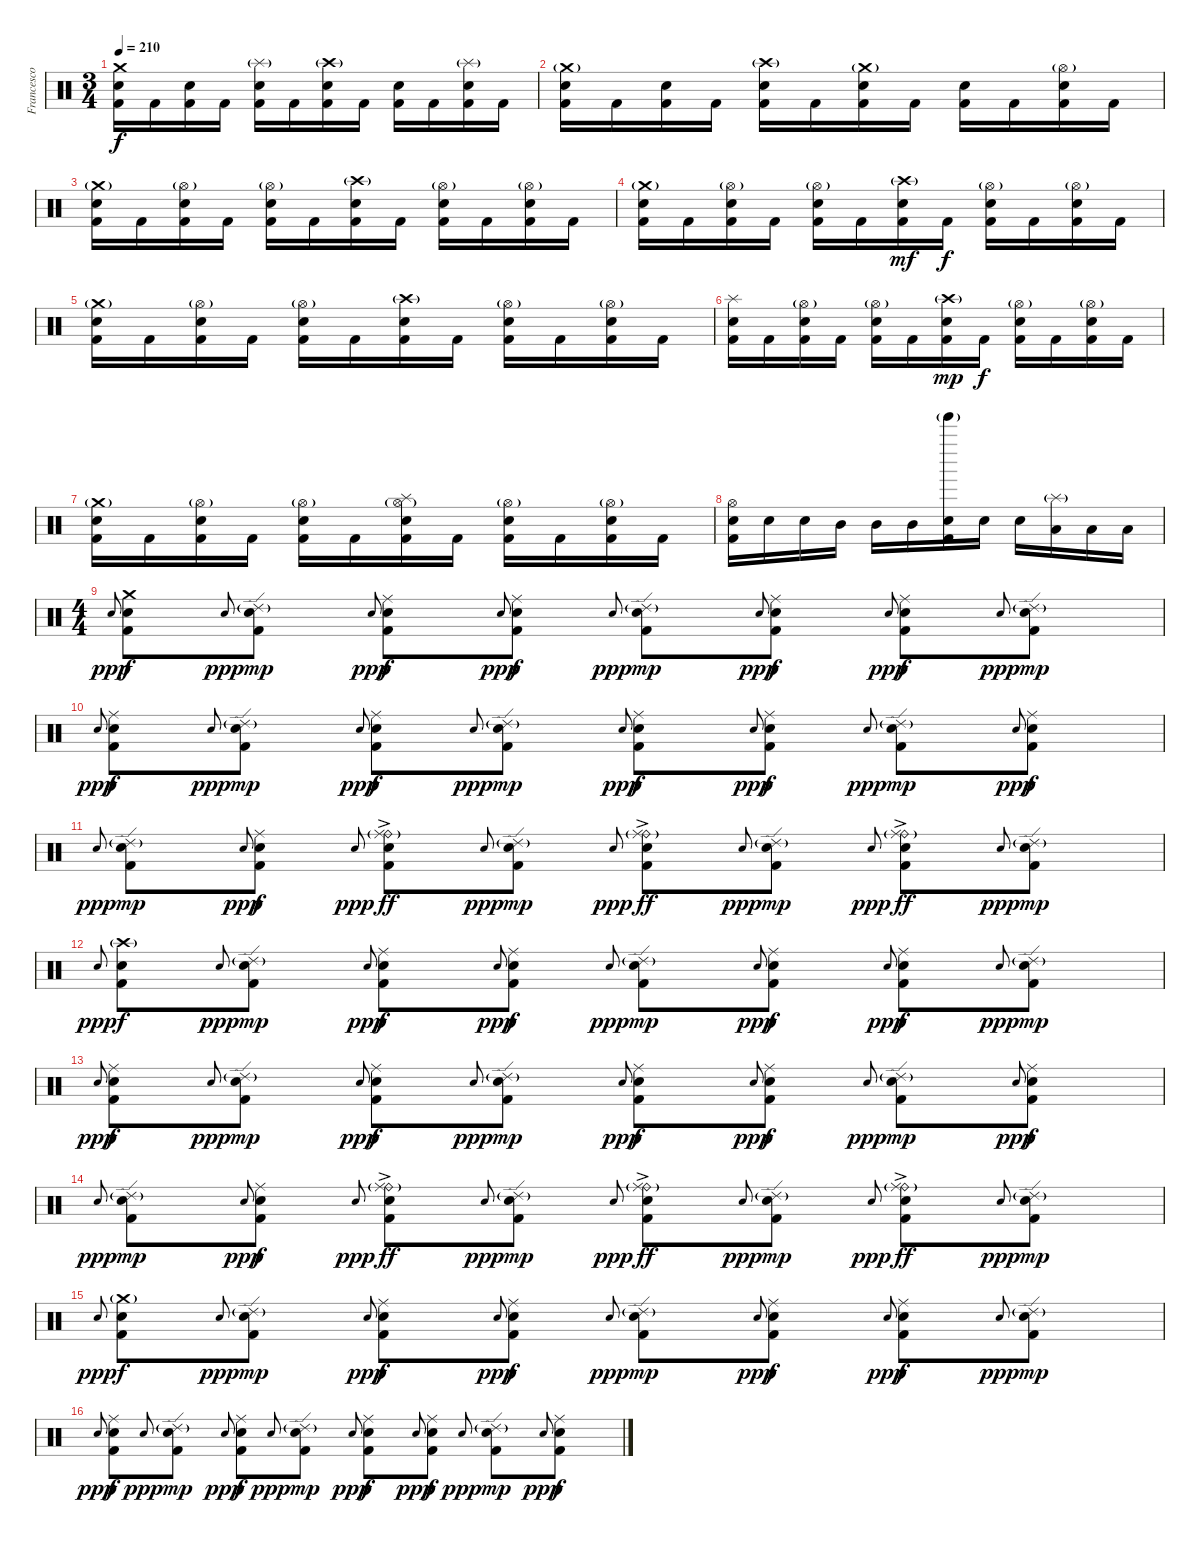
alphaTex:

\track ("Francesco Ferrini" "Francesco ") {instrument percussion}
\staff {score}
\articulation defaults
\ts (3 4)
\tempo 210
\clef neutral
\ks c
("Crash medium (hit)" "Electric Snare (hit)" "Kick (hit) 2").16{dy f} "Kick (hit) 2".16 ("Electric Snare (hit)" "Kick (hit) 2").16 "Kick (hit) 2".16 ("Splash (hit)"{g} "Electric Snare (hit)" "Kick (hit) 2").16 "Kick (hit) 2".16 ("Crash high (hit)"{g} "Electric Snare (hit)" "Kick (hit) 2").16 "Kick (hit) 2".16 ("Electric Snare (hit)" "Kick (hit) 2").16 "Kick (hit) 2".16 ("Splash (hit)"{g} "Electric Snare (hit)" "Kick (hit) 2").16 "Kick (hit) 2".16 |
("Crash medium (hit)"{g} "Electric Snare (hit)" "Kick (hit) 2").16 "Kick (hit) 2".16 ("Electric Snare (hit)" "Kick (hit) 2").16 "Kick (hit) 2".16 ("Crash high (hit)"{g} "Electric Snare (hit)" "Kick (hit) 2").16 "Kick (hit) 2".16 ("Crash medium (hit)"{g} "Electric Snare (hit)" "Kick (hit) 2").16 "Kick (hit) 2".16 ("Electric Snare (hit)" "Kick (hit) 2").16 "Kick (hit) 2".16 ("Hi-Hat (open)"{g} "Electric Snare (hit)" "Kick (hit) 2").16 "Kick (hit) 2".16 |
("Crash medium (hit)"{g} "Electric Snare (hit)" "Kick (hit) 2").16 "Kick (hit) 2".16 ("Hi-Hat (open)"{g} "Electric Snare (hit)" "Kick (hit) 2").16 "Kick (hit) 2".16 ("Hi-Hat (open)"{g} "Electric Snare (hit)" "Kick (hit) 2").16 "Kick (hit) 2".16 ("Crash high (hit)"{g} "Electric Snare (hit)" "Kick (hit) 2").16 "Kick (hit) 2".16 ("Hi-Hat (open)"{g} "Electric Snare (hit)" "Kick (hit) 2").16 "Kick (hit) 2".16 ("Hi-Hat (open)"{g} "Electric Snare (hit)" "Kick (hit) 2").16 "Kick (hit) 2".16 |
("Crash medium (hit)"{g} "Electric Snare (hit)" "Kick (hit) 2").16 "Kick (hit) 2".16 ("Hi-Hat (open)"{g} "Electric Snare (hit)" "Kick (hit) 2").16 "Kick (hit) 2".16 ("Hi-Hat (open)"{g} "Electric Snare (hit)" "Kick (hit) 2").16 "Kick (hit) 2".16 ("Crash high (hit)"{g} "Electric Snare (hit)" "Kick (hit) 2").16{dy mf} "Kick (hit) 2".16{dy f} ("Hi-Hat (open)"{g} "Electric Snare (hit)" "Kick (hit) 2").16 "Kick (hit) 2".16 ("Hi-Hat (open)"{g} "Electric Snare (hit)" "Kick (hit) 2").16 "Kick (hit) 2".16 |
("Crash medium (hit)"{g} "Electric Snare (hit)" "Kick (hit) 2").16 "Kick (hit) 2".16 ("Hi-Hat (open)"{g} "Electric Snare (hit)" "Kick (hit) 2").16 "Kick (hit) 2".16 ("Hi-Hat (open)"{g} "Electric Snare (hit)" "Kick (hit) 2").16 "Kick (hit) 2".16 ("Crash high (hit)"{g} "Electric Snare (hit)" "Kick (hit) 2").16 "Kick (hit) 2".16 ("Hi-Hat (open)"{g} "Electric Snare (hit)" "Kick (hit) 2").16 "Kick (hit) 2".16 ("Hi-Hat (open)"{g} "Electric Snare (hit)" "Kick (hit) 2").16 "Kick (hit) 2".16 |
("Splash (hit)" "Electric Snare (hit)" "Kick (hit) 2").16 "Kick (hit) 2".16 ("Hi-Hat (open)"{g} "Electric Snare (hit)" "Kick (hit) 2").16 "Kick (hit) 2".16 ("Hi-Hat (open)"{g} "Electric Snare (hit)" "Kick (hit) 2").16 "Kick (hit) 2".16 ("Crash high (hit)"{g} "Electric Snare (hit)" "Kick (hit) 2").16{dy mp} "Kick (hit) 2".16{dy f} ("Hi-Hat (open)"{g} "Electric Snare (hit)" "Kick (hit) 2").16 "Kick (hit) 2".16 ("Hi-Hat (open)"{g} "Electric Snare (hit)" "Kick (hit) 2").16 "Kick (hit) 2".16 |
("Crash medium (hit)"{g} "Electric Snare (hit)" "Kick (hit) 2").16 "Kick (hit) 2".16 ("Hi-Hat (open)"{g} "Electric Snare (hit)" "Kick (hit) 2").16 "Kick (hit) 2".16 ("Hi-Hat (open)"{g} "Electric Snare (hit)" "Kick (hit) 2").16 "Kick (hit) 2".16 ("Splash (hit)" "Hi-Hat (open)"{g} "Electric Snare (hit)" "Kick (hit) 2").16 "Kick (hit) 2".16 ("Hi-Hat (open)"{g} "Electric Snare (hit)" "Kick (hit) 2").16 "Kick (hit) 2".16 ("Hi-Hat (open)"{g} "Electric Snare (hit)" "Kick (hit) 2").16 "Kick (hit) 2".16 |
("Hi-Hat (open)" "Electric Snare (hit)" "Kick (hit) 2").16 "Electric Snare (hit)".16 "Electric Snare (hit)".16 "Mid Tom (hit)".16 "Mid Tom (hit)".16 "Mid Tom (hit)".16 ("Tinkle Bell (hit)"{g} "Electric Snare (hit)" "Kick (hit) 2").16 "Electric Snare (hit)".16 "Electric Snare (hit)".16 ("Splash (hit)"{g} "Low Tom (hit)").16 "Low Tom (hit)".16 "Low Tom (hit)".16 |
\ts (4 4)
"Electric Snare (hit)"{h}.8{gr onbeat dy ppp} ("Crash medium (hit)" "Electric Snare (hit)" "Kick (hit) 2").8{dy f} "Electric Snare (hit)"{h}.8{gr onbeat dy ppp} ("Ride (edge) 2"{g} "Electric Snare (hit)" "Kick (hit) 2").8{dy mp} "Electric Snare (hit)"{h}.8{gr onbeat dy ppp} ("Ride (middle)" "Electric Snare (hit)" "Kick (hit) 2").8{dy f} "Electric Snare (hit)"{h}.8{gr onbeat dy ppp} ("Ride (middle)" "Electric Snare (hit)" "Kick (hit) 2").8{dy f} "Electric Snare (hit)"{h}.8{gr onbeat dy ppp} ("Ride (edge) 2"{g} "Electric Snare (hit)" "Kick (hit) 2").8{dy mp} "Electric Snare (hit)"{h}.8{gr onbeat dy ppp} ("Ride (middle)" "Electric Snare (hit)" "Kick (hit) 2").8{dy f} "Electric Snare (hit)"{h}.8{gr onbeat dy ppp} ("Ride (middle)" "Electric Snare (hit)" "Kick (hit) 2").8{dy f} "Electric Snare (hit)"{h}.8{gr onbeat dy ppp} ("Ride (edge) 2"{g} "Electric Snare (hit)" "Kick (hit) 2").8{dy mp} |
"Electric Snare (hit)"{h}.8{gr onbeat dy ppp} ("Ride (middle)" "Electric Snare (hit)" "Kick (hit) 2").8{dy f} "Electric Snare (hit)"{h}.8{gr onbeat dy ppp} ("Ride (edge) 2"{g} "Electric Snare (hit)" "Kick (hit) 2").8{dy mp} "Electric Snare (hit)"{h}.8{gr onbeat dy ppp} ("Ride (middle)" "Electric Snare (hit)" "Kick (hit) 2").8{dy f} "Electric Snare (hit)"{h}.8{gr onbeat dy ppp} ("Ride (edge) 2"{g} "Electric Snare (hit)" "Kick (hit) 2").8{dy mp} "Electric Snare (hit)"{h}.8{gr onbeat dy ppp} ("Ride (middle)" "Electric Snare (hit)" "Kick (hit) 2").8{dy f} "Electric Snare (hit)"{h}.8{gr onbeat dy ppp} ("Ride (middle)" "Electric Snare (hit)" "Kick (hit) 2").8{dy f} "Electric Snare (hit)"{h}.8{gr onbeat dy ppp} ("Ride (edge) 2"{g} "Electric Snare (hit)" "Kick (hit) 2").8{dy mp} "Electric Snare (hit)"{h}.8{gr onbeat dy ppp} ("Ride (middle)" "Electric Snare (hit)" "Kick (hit) 2").8{dy f} |
"Electric Snare (hit)"{h}.8{gr onbeat dy ppp} ("Ride (edge) 2"{g} "Electric Snare (hit)" "Kick (hit) 2").8{dy mp} "Electric Snare (hit)"{h}.8{gr onbeat dy ppp} ("Ride (middle)" "Electric Snare (hit)" "Kick (hit) 2").8{dy f} "Electric Snare (hit)"{h}.8{gr onbeat dy ppp} ("Ride (bell)"{g} "Ride (middle)"{ac} "Electric Snare (hit)" "Kick (hit) 2").8{dy ff} "Electric Snare (hit)"{h}.8{gr onbeat dy ppp} ("Ride (edge) 2"{g} "Electric Snare (hit)" "Kick (hit) 2").8{dy mp} "Electric Snare (hit)"{h}.8{gr onbeat dy ppp} ("Ride (bell)"{g} "Ride (middle)"{ac} "Electric Snare (hit)" "Kick (hit) 2").8{dy ff} "Electric Snare (hit)"{h}.8{gr onbeat dy ppp} ("Ride (edge) 2"{g} "Electric Snare (hit)" "Kick (hit) 2").8{dy mp} "Electric Snare (hit)"{h}.8{gr onbeat dy ppp} ("Ride (bell)"{g} "Ride (middle)"{ac} "Electric Snare (hit)" "Kick (hit) 2").8{dy ff} "Electric Snare (hit)"{h}.8{gr onbeat dy ppp} ("Ride (edge) 2"{g} "Electric Snare (hit)" "Kick (hit) 2").8{dy mp} |
"Electric Snare (hit)"{h}.8{gr onbeat dy ppp} ("Crash high (hit)"{g} "Electric Snare (hit)" "Kick (hit) 2").8{dy f} "Electric Snare (hit)"{h}.8{gr onbeat dy ppp} ("Ride (edge) 2"{g} "Electric Snare (hit)" "Kick (hit) 2").8{dy mp} "Electric Snare (hit)"{h}.8{gr onbeat dy ppp} ("Ride (middle)" "Electric Snare (hit)" "Kick (hit) 2").8{dy f} "Electric Snare (hit)"{h}.8{gr onbeat dy ppp} ("Ride (middle)" "Electric Snare (hit)" "Kick (hit) 2").8{dy f} "Electric Snare (hit)"{h}.8{gr onbeat dy ppp} ("Ride (edge) 2"{g} "Electric Snare (hit)" "Kick (hit) 2").8{dy mp} "Electric Snare (hit)"{h}.8{gr onbeat dy ppp} ("Ride (middle)" "Electric Snare (hit)" "Kick (hit) 2").8{dy f} "Electric Snare (hit)"{h}.8{gr onbeat dy ppp} ("Ride (middle)" "Electric Snare (hit)" "Kick (hit) 2").8{dy f} "Electric Snare (hit)"{h}.8{gr onbeat dy ppp} ("Ride (edge) 2"{g} "Electric Snare (hit)" "Kick (hit) 2").8{dy mp} |
"Electric Snare (hit)"{h}.8{gr onbeat dy ppp} ("Ride (middle)" "Electric Snare (hit)" "Kick (hit) 2").8{dy f} "Electric Snare (hit)"{h}.8{gr onbeat dy ppp} ("Ride (edge) 2"{g} "Electric Snare (hit)" "Kick (hit) 2").8{dy mp} "Electric Snare (hit)"{h}.8{gr onbeat dy ppp} ("Ride (middle)" "Electric Snare (hit)" "Kick (hit) 2").8{dy f} "Electric Snare (hit)"{h}.8{gr onbeat dy ppp} ("Ride (edge) 2"{g} "Electric Snare (hit)" "Kick (hit) 2").8{dy mp} "Electric Snare (hit)"{h}.8{gr onbeat dy ppp} ("Ride (middle)" "Electric Snare (hit)" "Kick (hit) 2").8{dy f} "Electric Snare (hit)"{h}.8{gr onbeat dy ppp} ("Ride (middle)" "Electric Snare (hit)" "Kick (hit) 2").8{dy f} "Electric Snare (hit)"{h}.8{gr onbeat dy ppp} ("Ride (edge) 2"{g} "Electric Snare (hit)" "Kick (hit) 2").8{dy mp} "Electric Snare (hit)"{h}.8{gr onbeat dy ppp} ("Ride (middle)" "Electric Snare (hit)" "Kick (hit) 2").8{dy f} |
"Electric Snare (hit)"{h}.8{gr onbeat dy ppp} ("Ride (edge) 2"{g} "Electric Snare (hit)" "Kick (hit) 2").8{dy mp} "Electric Snare (hit)"{h}.8{gr onbeat dy ppp} ("Ride (middle)" "Electric Snare (hit)" "Kick (hit) 2").8{dy f} "Electric Snare (hit)"{h}.8{gr onbeat dy ppp} ("Ride (bell)"{g} "Ride (middle)"{ac} "Electric Snare (hit)" "Kick (hit) 2").8{dy ff} "Electric Snare (hit)"{h}.8{gr onbeat dy ppp} ("Ride (edge) 2"{g} "Electric Snare (hit)" "Kick (hit) 2").8{dy mp} "Electric Snare (hit)"{h}.8{gr onbeat dy ppp} ("Ride (bell)"{g} "Ride (middle)"{ac} "Electric Snare (hit)" "Kick (hit) 2").8{dy ff} "Electric Snare (hit)"{h}.8{gr onbeat dy ppp} ("Ride (edge) 2"{g} "Electric Snare (hit)" "Kick (hit) 2").8{dy mp} "Electric Snare (hit)"{h}.8{gr onbeat dy ppp} ("Ride (bell)"{g} "Ride (middle)"{ac} "Electric Snare (hit)" "Kick (hit) 2").8{dy ff} "Electric Snare (hit)"{h}.8{gr onbeat dy ppp} ("Ride (edge) 2"{g} "Electric Snare (hit)" "Kick (hit) 2").8{dy mp} |
"Electric Snare (hit)"{h}.8{gr onbeat dy ppp} ("Crash medium (hit)"{g} "Electric Snare (hit)" "Kick (hit) 2").8{dy f} "Electric Snare (hit)"{h}.8{gr onbeat dy ppp} ("Ride (edge) 2"{g} "Electric Snare (hit)" "Kick (hit) 2").8{dy mp} "Electric Snare (hit)"{h}.8{gr onbeat dy ppp} ("Ride (middle)" "Electric Snare (hit)" "Kick (hit) 2").8{dy f} "Electric Snare (hit)"{h}.8{gr onbeat dy ppp} ("Ride (middle)" "Electric Snare (hit)" "Kick (hit) 2").8{dy f} "Electric Snare (hit)"{h}.8{gr onbeat dy ppp} ("Ride (edge) 2"{g} "Electric Snare (hit)" "Kick (hit) 2").8{dy mp} "Electric Snare (hit)"{h}.8{gr onbeat dy ppp} ("Ride (middle)" "Electric Snare (hit)" "Kick (hit) 2").8{dy f} "Electric Snare (hit)"{h}.8{gr onbeat dy ppp} ("Ride (middle)" "Electric Snare (hit)" "Kick (hit) 2").8{dy f} "Electric Snare (hit)"{h}.8{gr onbeat dy ppp} ("Ride (edge) 2"{g} "Electric Snare (hit)" "Kick (hit) 2").8{dy mp} |
"Electric Snare (hit)"{h}.8{gr onbeat dy ppp} ("Ride (middle)" "Electric Snare (hit)" "Kick (hit) 2").8{dy f} "Electric Snare (hit)"{h}.8{gr onbeat dy ppp} ("Ride (edge) 2"{g} "Electric Snare (hit)" "Kick (hit) 2").8{dy mp} "Electric Snare (hit)"{h}.8{gr onbeat dy ppp} ("Ride (middle)" "Electric Snare (hit)" "Kick (hit) 2").8{dy f} "Electric Snare (hit)"{h}.8{gr onbeat dy ppp} ("Ride (edge) 2"{g} "Electric Snare (hit)" "Kick (hit) 2").8{dy mp} "Electric Snare (hit)"{h}.8{gr onbeat dy ppp} ("Ride (middle)" "Electric Snare (hit)" "Kick (hit) 2").8{dy f} "Electric Snare (hit)"{h}.8{gr onbeat dy ppp} ("Ride (middle)" "Electric Snare (hit)" "Kick (hit) 2").8{dy f} "Electric Snare (hit)"{h}.8{gr onbeat dy ppp} ("Ride (edge) 2"{g} "Electric Snare (hit)" "Kick (hit) 2").8{dy mp} "Electric Snare (hit)"{h}.8{gr onbeat dy ppp} ("Ride (middle)" "Electric Snare (hit)" "Kick (hit) 2").8{dy f}
